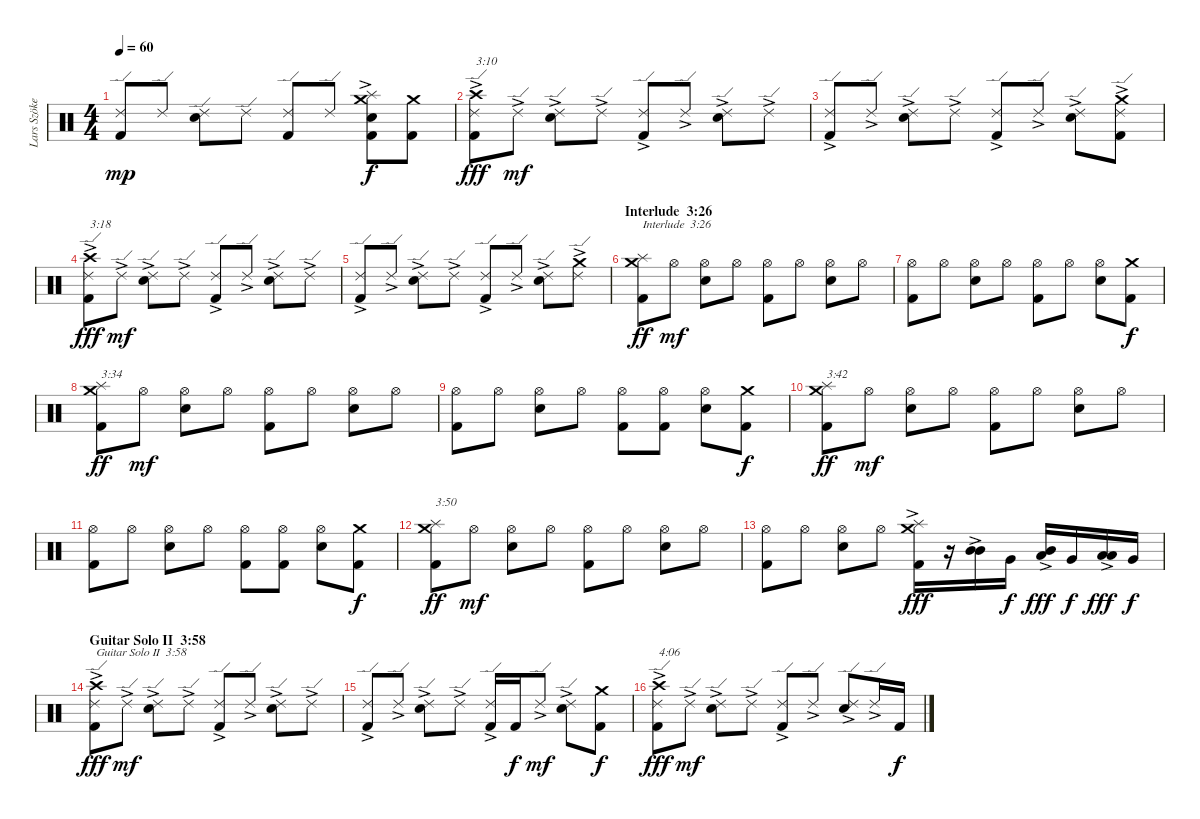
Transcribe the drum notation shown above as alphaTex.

\track ("Lars Szöke (Drums)" "Lars Szöke") {instrument percussion}
\staff {score}
\articulation defaults
\ts (4 4)
\tempo 60
\clef neutral
\ks c
("Kick (hit) 2" "Ride (edge) 2").8{dy mp} "Ride (edge) 2".8 ("Snare (hit) 2" "Ride (edge) 2").8 "Ride (edge) 2".8 ("Kick (hit) 2" "Ride (edge) 2").8 "Ride (edge) 2".8 ("Kick (hit) 2" "Snare (hit) 2"{ac} "Splash (hit)"{ac} "Crash medium (hit)"{ac}).8{dy f} ("Kick (hit) 2" "Crash medium (hit)").8 |
("Kick (hit) 2" "Ride (edge) 2"{ac} "Crash high (hit)"{ac}).8{txt "3:10" dy fff} "Ride (edge) 2"{ac}.8{dy mf} ("Snare (hit) 2" "Ride (edge) 2"{ac}).8 "Ride (edge) 2"{ac}.8 ("Kick (hit) 2" "Ride (edge) 2"{ac}).8 "Ride (edge) 2"{ac}.8 ("Snare (hit) 2" "Ride (edge) 2"{ac}).8 "Ride (edge) 2"{ac}.8 |
("Kick (hit) 2" "Ride (edge) 2"{ac}).8 "Ride (edge) 2"{ac}.8 ("Snare (hit) 2" "Ride (edge) 2"{ac}).8 "Ride (edge) 2"{ac}.8 ("Kick (hit) 2" "Ride (edge) 2"{ac}).8 "Ride (edge) 2"{ac}.8 ("Snare (hit) 2" "Ride (edge) 2"{ac}).8 ("Kick (hit) 2" "Ride (edge) 2"{ac} "Crash medium (hit)").8 |
("Kick (hit) 2" "Ride (edge) 2"{ac} "Crash high (hit)"{ac}).8{txt "3:18" dy fff} "Ride (edge) 2"{ac}.8{dy mf} ("Snare (hit) 2" "Ride (edge) 2"{ac}).8 "Ride (edge) 2"{ac}.8 ("Kick (hit) 2" "Ride (edge) 2"{ac}).8 "Ride (edge) 2"{ac}.8 ("Snare (hit) 2" "Ride (edge) 2"{ac}).8 "Ride (edge) 2"{ac}.8 |
("Kick (hit) 2" "Ride (edge) 2"{ac}).8 "Ride (edge) 2"{ac}.8 ("Snare (hit) 2" "Ride (edge) 2"{ac}).8 "Ride (edge) 2"{ac}.8 ("Kick (hit) 2" "Ride (edge) 2"{ac}).8 "Ride (edge) 2"{ac}.8 ("Snare (hit) 2" "Ride (edge) 2"{ac}).8 ("Ride (edge) 2"{ac} "Crash medium (hit)").8 |
\section ("" "Interlude  3:26")
("Kick (hit) 2" "Splash (hit)" "Crash medium (hit)").8{txt "Interlude  3:26" dy ff} "Hi-Hat (open)".8{dy mf} ("Snare (hit) 2" "Hi-Hat (open)").8 "Hi-Hat (open)".8 ("Kick (hit) 2" "Hi-Hat (open)").8 "Hi-Hat (open)".8 ("Snare (hit) 2" "Hi-Hat (open)").8 "Hi-Hat (open)".8 |
("Kick (hit) 2" "Hi-Hat (open)").8 "Hi-Hat (open)".8 ("Snare (hit) 2" "Hi-Hat (open)").8 "Hi-Hat (open)".8 ("Kick (hit) 2" "Hi-Hat (open)").8 "Hi-Hat (open)".8 ("Snare (hit) 2" "Hi-Hat (open)").8 ("Kick (hit) 2" "Crash medium (hit)").8{dy f} |
("Kick (hit) 2" "Splash (hit)" "Crash medium (hit)").8{txt "3:34" dy ff} "Hi-Hat (open)".8{dy mf} ("Snare (hit) 2" "Hi-Hat (open)").8 "Hi-Hat (open)".8 ("Kick (hit) 2" "Hi-Hat (open)").8 "Hi-Hat (open)".8 ("Snare (hit) 2" "Hi-Hat (open)").8 "Hi-Hat (open)".8 |
("Kick (hit) 2" "Hi-Hat (open)").8 "Hi-Hat (open)".8 ("Snare (hit) 2" "Hi-Hat (open)").8 "Hi-Hat (open)".8 ("Kick (hit) 2" "Hi-Hat (open)").8 ("Kick (hit) 2" "Hi-Hat (open)").8 ("Snare (hit) 2" "Hi-Hat (open)").8 ("Kick (hit) 2" "Crash medium (hit)").8{dy f} |
("Kick (hit) 2" "Splash (hit)" "Crash medium (hit)").8{txt "3:42" dy ff} "Hi-Hat (open)".8{dy mf} ("Snare (hit) 2" "Hi-Hat (open)").8 "Hi-Hat (open)".8 ("Kick (hit) 2" "Hi-Hat (open)").8 "Hi-Hat (open)".8 ("Snare (hit) 2" "Hi-Hat (open)").8 "Hi-Hat (open)".8 |
("Kick (hit) 2" "Hi-Hat (open)").8 "Hi-Hat (open)".8 ("Snare (hit) 2" "Hi-Hat (open)").8 "Hi-Hat (open)".8 ("Kick (hit) 2" "Hi-Hat (open)").8 ("Kick (hit) 2" "Hi-Hat (open)").8 ("Snare (hit) 2" "Hi-Hat (open)").8 ("Kick (hit) 2" "Crash medium (hit)").8{dy f} |
("Kick (hit) 2" "Splash (hit)" "Crash medium (hit)").8{txt "3:50" dy ff} "Hi-Hat (open)".8{dy mf} ("Snare (hit) 2" "Hi-Hat (open)").8 "Hi-Hat (open)".8 ("Kick (hit) 2" "Hi-Hat (open)").8 "Hi-Hat (open)".8 ("Snare (hit) 2" "Hi-Hat (open)").8 "Hi-Hat (open)".8 |
("Kick (hit) 2" "Hi-Hat (open)").8 "Hi-Hat (open)".8 ("Snare (hit) 2" "Hi-Hat (open)").8 "Hi-Hat (open)".8 ("Kick (hit) 2" "Splash (hit)"{ac} "Crash medium (hit)"{ac}).16{dy fff} r.16 ("Mid Tom (hit)"{ac} "Mid Tom (hit)"{ac}).16 "Very Low Tom (hit)".16{dy f} ("Low Tom (hit)"{ac} "Mid Tom (hit)"{ac}).16{dy fff} "Very Low Tom (hit)".16{dy f} ("Low Tom (hit)"{ac} "Low Tom (hit)"{ac}).16{dy fff} "Very Low Tom (hit)".16{dy f} |
\section ("" "Guitar Solo II  3:58")
("Kick (hit) 2" "Ride (edge) 2"{ac} "Crash high (hit)"{ac}).8{txt "Guitar Solo II  3:58" dy fff} "Ride (edge) 2"{ac}.8{dy mf} ("Snare (hit) 2" "Ride (edge) 2"{ac}).8 "Ride (edge) 2"{ac}.8 ("Kick (hit) 2" "Ride (edge) 2"{ac}).8 "Ride (edge) 2"{ac}.8 ("Snare (hit) 2" "Ride (edge) 2"{ac}).8 "Ride (edge) 2"{ac}.8 |
("Kick (hit) 2" "Ride (edge) 2"{ac}).8 "Ride (edge) 2"{ac}.8 ("Snare (hit) 2" "Ride (edge) 2"{ac}).8 "Ride (edge) 2"{ac}.8 ("Kick (hit) 2" "Ride (edge) 2"{ac}).16 "Kick (hit) 2".16{dy f} "Ride (edge) 2"{ac}.8{dy mf} ("Snare (hit) 2" "Ride (edge) 2"{ac}).8 ("Kick (hit) 2" "Crash medium (hit)").8{dy f} |
("Kick (hit) 2" "Ride (edge) 2"{ac} "Crash high (hit)"{ac}).8{txt "4:06" dy fff} "Ride (edge) 2"{ac}.8{dy mf} ("Snare (hit) 2" "Ride (edge) 2"{ac}).8 "Ride (edge) 2"{ac}.8 ("Kick (hit) 2" "Ride (edge) 2"{ac}).8 "Ride (edge) 2"{ac}.8 ("Snare (hit) 2" "Ride (edge) 2"{ac}).8 "Ride (edge) 2"{ac}.16 "Kick (hit) 2".16{dy f}
